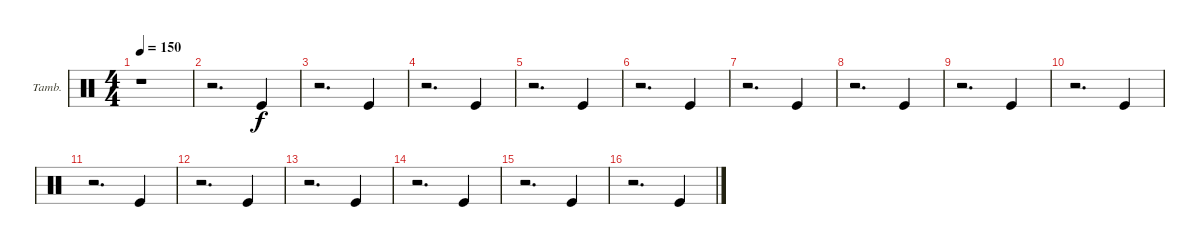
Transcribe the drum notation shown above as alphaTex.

\defaultSystemsLayout 4
\bracketExtendMode groupsimilarinstruments
\firstSystemTrackNameOrientation horizontal
\otherSystemsTrackNameOrientation horizontal
\track ("Tambourine" "Tamb.") {instrument percussion}
\staff {score}
\articulation defaults
\ts (4 4)
\tempo 150
\clef neutral
\scale
0.472222
\ks c
r.1{dy f} |
\scale
0.263889 r.2{d} "Kick (hit)".4 |
\scale
0.263889 r.2{d} "Kick (hit)".4 |
\scale
0.333333 r.2{d} "Kick (hit)".4 |
\scale
0.333333 r.2{d} "Kick (hit)".4 |
\scale
0.333333 r.2{d} "Kick (hit)".4 |
r.2{d} "Kick (hit)".4 |
r.2{d} "Kick (hit)".4 |
r.2{d} "Kick (hit)".4 |
r.2{d} "Kick (hit)".4 |
r.2{d} "Kick (hit)".4 |
r.2{d} "Kick (hit)".4 |
r.2{d} "Kick (hit)".4 |
r.2{d} "Kick (hit)".4 |
r.2{d} "Kick (hit)".4 |
r.2{d} "Kick (hit)".4
